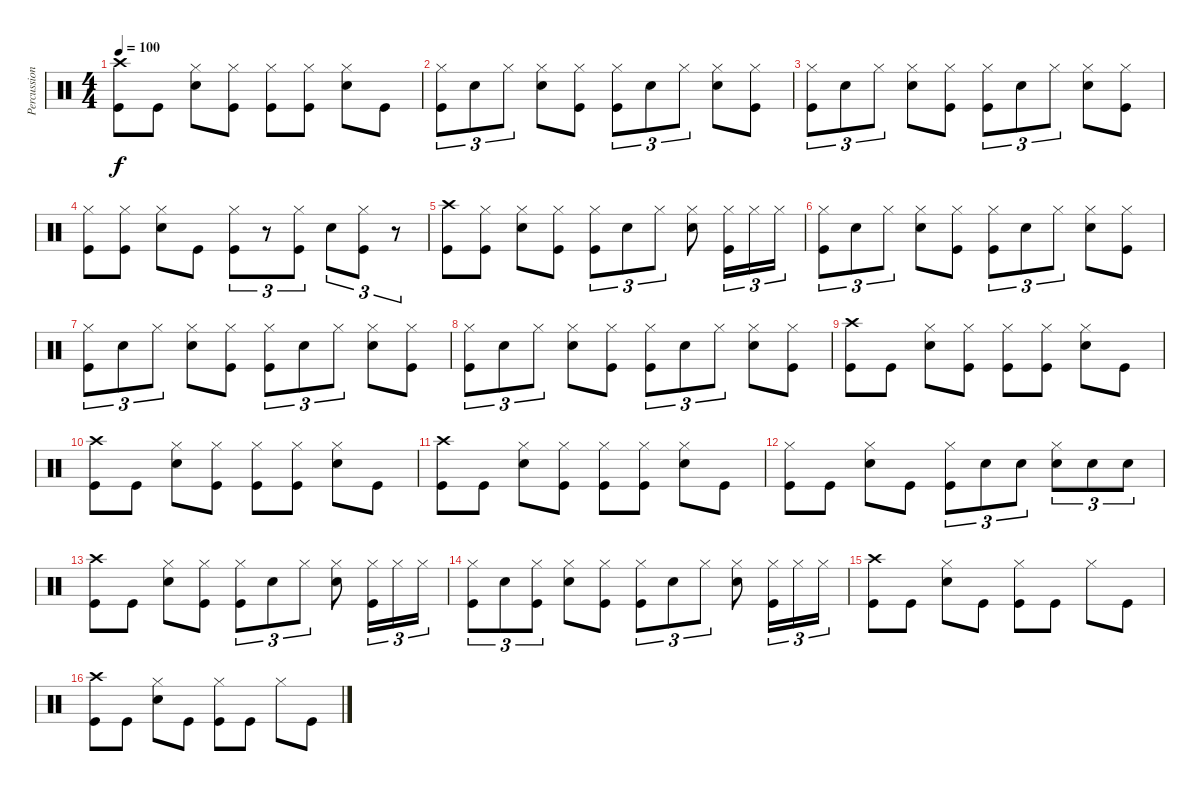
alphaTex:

\track ("Percussions" "Percussion") {instrument percussion}
\staff {score}
\articulation defaults
\ts (4 4)
\tempo 100
\clef neutral
\ks c
("Crash high (hit)" "Kick (hit)").8{dy f} "Kick (hit)".8 ("Hi-Hat (closed)" "Electric Snare (hit)").8 ("Hi-Hat (closed)" "Kick (hit)").8 ("Hi-Hat (closed)" "Kick (hit)").8 ("Hi-Hat (closed)" "Kick (hit)").8 ("Hi-Hat (closed)" "Electric Snare (hit)").8 "Kick (hit)".8 |
("Hi-Hat (closed)" "Kick (hit)").8{tu (3 2)} "Electric Snare (hit)".8{tu (3 2)} "Hi-Hat (closed)".8{tu (3 2)} ("Hi-Hat (closed)" "Electric Snare (hit)").8 ("Hi-Hat (closed)" "Kick (hit)").8 ("Hi-Hat (closed)" "Kick (hit)").8{tu (3 2)} "Electric Snare (hit)".8{tu (3 2)} "Hi-Hat (closed)".8{tu (3 2)} ("Hi-Hat (closed)" "Electric Snare (hit)").8 ("Hi-Hat (closed)" "Kick (hit)").8 |
("Hi-Hat (closed)" "Kick (hit)").8{tu (3 2)} "Electric Snare (hit)".8{tu (3 2)} "Hi-Hat (closed)".8{tu (3 2)} ("Hi-Hat (closed)" "Electric Snare (hit)").8 ("Hi-Hat (closed)" "Kick (hit)").8 ("Hi-Hat (closed)" "Kick (hit)").8{tu (3 2)} "Electric Snare (hit)".8{tu (3 2)} "Hi-Hat (closed)".8{tu (3 2)} ("Hi-Hat (closed)" "Electric Snare (hit)").8 ("Hi-Hat (closed)" "Kick (hit)").8 |
("Hi-Hat (closed)" "Kick (hit)").8 ("Hi-Hat (closed)" "Kick (hit)").8 ("Hi-Hat (closed)" "Electric Snare (hit)").8 "Kick (hit)".8 ("Hi-Hat (closed)" "Kick (hit)").8{tu (3 2)} r.8{tu (3 2)} ("Hi-Hat (closed)" "Kick (hit)").8{tu (3 2)} "Electric Snare (hit)".8{tu (3 2)} ("Hi-Hat (closed)" "Kick (hit)").8{tu (3 2)} r.8{tu (3 2)} |
("Crash high (hit)" "Kick (hit)").8 ("Hi-Hat (closed)" "Kick (hit)").8 ("Hi-Hat (closed)" "Electric Snare (hit)").8 ("Hi-Hat (closed)" "Kick (hit)").8 ("Hi-Hat (closed)" "Kick (hit)").8{tu (3 2)} "Electric Snare (hit)".8{tu (3 2)} "Hi-Hat (closed)".8{tu (3 2)} ("Hi-Hat (closed)" "Electric Snare (hit)").8 ("Hi-Hat (closed)" "Kick (hit)").16{tu (3 2)} "Hi-Hat (closed)".16{tu (3 2)} "Hi-Hat (closed)".16{tu (3 2)} |
("Hi-Hat (closed)" "Kick (hit)").8{tu (3 2)} "Electric Snare (hit)".8{tu (3 2)} "Hi-Hat (closed)".8{tu (3 2)} ("Hi-Hat (closed)" "Electric Snare (hit)").8 ("Hi-Hat (closed)" "Kick (hit)").8 ("Hi-Hat (closed)" "Kick (hit)").8{tu (3 2)} "Electric Snare (hit)".8{tu (3 2)} "Hi-Hat (closed)".8{tu (3 2)} ("Hi-Hat (closed)" "Electric Snare (hit)").8 ("Hi-Hat (closed)" "Kick (hit)").8 |
("Hi-Hat (closed)" "Kick (hit)").8{tu (3 2)} "Electric Snare (hit)".8{tu (3 2)} "Hi-Hat (closed)".8{tu (3 2)} ("Hi-Hat (closed)" "Electric Snare (hit)").8 ("Hi-Hat (closed)" "Kick (hit)").8 ("Hi-Hat (closed)" "Kick (hit)").8{tu (3 2)} "Electric Snare (hit)".8{tu (3 2)} "Hi-Hat (closed)".8{tu (3 2)} ("Hi-Hat (closed)" "Electric Snare (hit)").8 ("Hi-Hat (closed)" "Kick (hit)").8 |
("Hi-Hat (closed)" "Kick (hit)").8{tu (3 2)} "Electric Snare (hit)".8{tu (3 2)} "Hi-Hat (closed)".8{tu (3 2)} ("Hi-Hat (closed)" "Electric Snare (hit)").8 ("Hi-Hat (closed)" "Kick (hit)").8 ("Hi-Hat (closed)" "Kick (hit)").8{tu (3 2)} "Electric Snare (hit)".8{tu (3 2)} "Hi-Hat (closed)".8{tu (3 2)} ("Hi-Hat (closed)" "Electric Snare (hit)").8 ("Hi-Hat (closed)" "Kick (hit)").8 |
("Crash high (hit)" "Kick (hit)").8 "Kick (hit)".8 ("Hi-Hat (closed)" "Electric Snare (hit)").8 ("Hi-Hat (closed)" "Kick (hit)").8 ("Hi-Hat (closed)" "Kick (hit)").8 ("Hi-Hat (closed)" "Kick (hit)").8 ("Hi-Hat (closed)" "Electric Snare (hit)").8 "Kick (hit)".8 |
("Crash high (hit)" "Kick (hit)").8 "Kick (hit)".8 ("Hi-Hat (closed)" "Electric Snare (hit)").8 ("Hi-Hat (closed)" "Kick (hit)").8 ("Hi-Hat (closed)" "Kick (hit)").8 ("Hi-Hat (closed)" "Kick (hit)").8 ("Hi-Hat (closed)" "Electric Snare (hit)").8 "Kick (hit)".8 |
("Crash high (hit)" "Kick (hit)").8 "Kick (hit)".8 ("Hi-Hat (closed)" "Electric Snare (hit)").8 ("Hi-Hat (closed)" "Kick (hit)").8 ("Hi-Hat (closed)" "Kick (hit)").8 ("Hi-Hat (closed)" "Kick (hit)").8 ("Hi-Hat (closed)" "Electric Snare (hit)").8 "Kick (hit)".8 |
("Hi-Hat (closed)" "Kick (hit)").8 "Kick (hit)".8 ("Hi-Hat (closed)" "Electric Snare (hit)").8 "Kick (hit)".8 ("Hi-Hat (closed)" "Kick (hit)").8{tu (3 2)} "Electric Snare (hit)".8{tu (3 2)} "Electric Snare (hit)".8{tu (3 2)} ("Hi-Hat (closed)" "Electric Snare (hit)").8{tu (3 2)} "Electric Snare (hit)".8{tu (3 2)} "Electric Snare (hit)".8{tu (3 2)} |
("Crash high (hit)" "Kick (hit)").8 "Kick (hit)".8 ("Hi-Hat (closed)" "Electric Snare (hit)").8 ("Hi-Hat (closed)" "Kick (hit)").8 ("Hi-Hat (closed)" "Kick (hit)").8{tu (3 2)} "Electric Snare (hit)".8{tu (3 2)} "Hi-Hat (closed)".8{tu (3 2)} ("Hi-Hat (closed)" "Electric Snare (hit)").8 ("Hi-Hat (closed)" "Kick (hit)").16{tu (3 2)} "Hi-Hat (closed)".16{tu (3 2)} "Hi-Hat (closed)".16{tu (3 2)} |
("Hi-Hat (closed)" "Kick (hit)").8{tu (3 2)} "Electric Snare (hit)".8{tu (3 2)} ("Hi-Hat (closed)" "Kick (hit)").8{tu (3 2)} ("Hi-Hat (closed)" "Electric Snare (hit)").8 ("Hi-Hat (closed)" "Kick (hit)").8 ("Hi-Hat (closed)" "Kick (hit)").8{tu (3 2)} "Electric Snare (hit)".8{tu (3 2)} "Hi-Hat (closed)".8{tu (3 2)} ("Hi-Hat (closed)" "Electric Snare (hit)").8 ("Hi-Hat (closed)" "Kick (hit)").16{tu (3 2)} "Hi-Hat (closed)".16{tu (3 2)} "Hi-Hat (closed)".16{tu (3 2)} |
("Crash high (hit)" "Kick (hit)").8 "Kick (hit)".8 ("Hi-Hat (closed)" "Electric Snare (hit)").8 "Kick (hit)".8 ("Hi-Hat (closed)" "Kick (hit)").8 "Kick (hit)".8 "Hi-Hat (closed)".8 "Kick (hit)".8 |
("Crash high (hit)" "Kick (hit)").8 "Kick (hit)".8 ("Hi-Hat (closed)" "Electric Snare (hit)").8 "Kick (hit)".8 ("Hi-Hat (closed)" "Kick (hit)").8 "Kick (hit)".8 "Hi-Hat (closed)".8 "Kick (hit)".8
